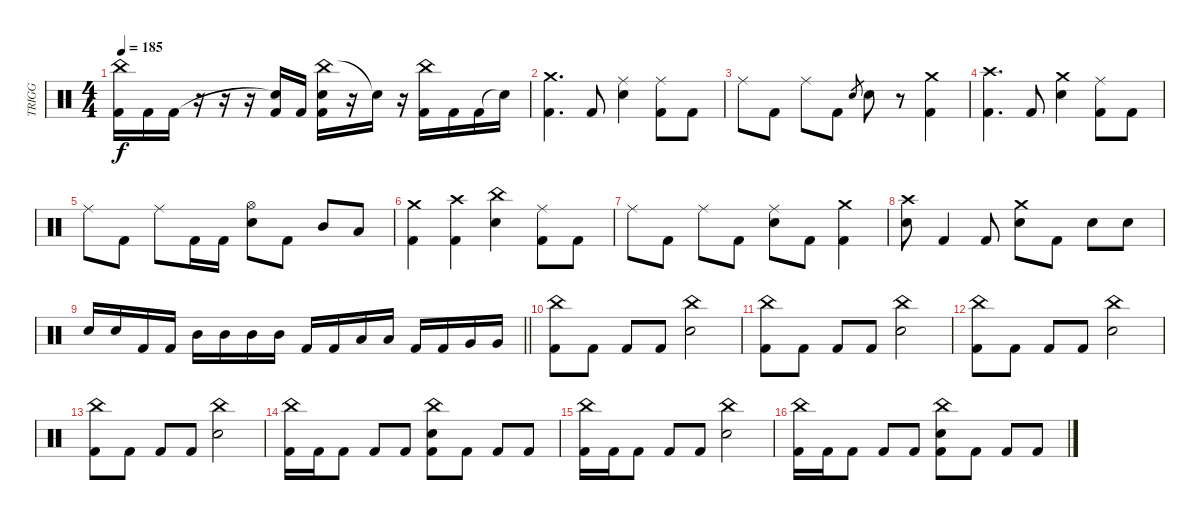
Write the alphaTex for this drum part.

\track ("TRIGG" "TRIGG") {instrument percussion}
\staff {score}
\articulation defaults
\ts (4 4)
\tempo 185
\clef neutral
\ks c
("China (hit)" "Kick (hit) 2").16{dy f} "Kick (hit) 2".16 "Kick (hit) 2".16 r.16 r.16 r.16 ("Snare (hit)"{t} "Kick (hit) 2").16 "Kick (hit) 2".16 ("China (hit)" "Electric Snare (hit)" "Kick (hit) 2").16 r.16 "Snare (hit)"{t}.16 r.16 ("China (hit)" "Kick (hit) 2").16 "Kick (hit) 2".16 "Kick (hit) 2".16 "Snare (hit)"{t}.16 |
("Crash medium (hit)" "Kick (hit) 2").4{d} "Kick (hit) 2".8 ("Ride (middle)" "Electric Snare (hit)").4 ("Ride (middle)" "Kick (hit) 2").8 "Kick (hit) 2".8 |
"Ride (middle)".8 "Kick (hit) 2".8 "Ride (middle)".8 "Kick (hit) 2".8 "Electric Snare (hit)".8{gr} "Electric Snare (hit)".8 r.8 ("Crash medium (hit)" "Kick (hit) 2").4 |
("Crash high (hit)" "Kick (hit) 2").4{d} "Kick (hit) 2".8 ("Crash medium (hit)" "Electric Snare (hit)").4 ("Ride (middle)" "Kick (hit) 2").8 "Kick (hit) 2".8 |
"Ride (middle)".8 "Kick (hit) 2".8 "Ride (middle)".8 "Kick (hit) 2".16 "Kick (hit) 2".16 ("Hi-Hat (open)" "Electric Snare (hit)").8 "Kick (hit) 2".8 "Mid Tom (hit)".8 "Low Tom (hit)".8 |
("Crash medium (hit)" "Kick (hit) 2").4 ("Crash high (hit)" "Kick (hit) 2").4 ("China (hit)" "Electric Snare (hit)").4 ("Ride (middle)" "Kick (hit) 2").8 "Kick (hit) 2".8 |
"Ride (middle)".8 "Kick (hit) 2".8 "Ride (middle)".8 "Kick (hit) 2".8 ("Ride (middle)" "Electric Snare (hit)").8 "Kick (hit) 2".8 ("Crash medium (hit)" "Kick (hit) 2").4 |
("Crash high (hit)" "Electric Snare (hit)").8 "Kick (hit) 2".4 "Kick (hit) 2".8 ("Crash medium (hit)" "Electric Snare (hit)").8 "Kick (hit) 2".8 "Electric Snare (hit)".8 "Electric Snare (hit)".8 |
\barLineRight lightlight "Electric Snare (hit)".16 "Electric Snare (hit)".16 "Kick (hit) 2".16 "Kick (hit) 2".16 "Mid Tom (hit)".16 "Mid Tom (hit)".16 "Mid Tom (hit)".16 "Mid Tom (hit)".16 "Kick (hit) 2".16 "Kick (hit) 2".16 "Low Tom (hit)".16 "Low Tom (hit)".16 "Kick (hit) 2".16 "Kick (hit) 2".16 "Very Low Tom (hit)".16 "Very Low Tom (hit)".16
|
("China (hit)" "Kick (hit) 2").8 "Kick (hit) 2".8 "Kick (hit) 2".8 "Kick (hit) 2".8 ("China (hit)" "Electric Snare (hit)").2 |
("China (hit)" "Kick (hit) 2").8 "Kick (hit) 2".8 "Kick (hit) 2".8 "Kick (hit) 2".8 ("China (hit)" "Electric Snare (hit)").2 |
("China (hit)" "Kick (hit) 2").8 "Kick (hit) 2".8 "Kick (hit) 2".8 "Kick (hit) 2".8 ("China (hit)" "Electric Snare (hit)").2 |
("China (hit)" "Kick (hit) 2").8 "Kick (hit) 2".8 "Kick (hit) 2".8 "Kick (hit) 2".8 ("China (hit)" "Electric Snare (hit)").2 |
("China (hit)" "Kick (hit) 2").16 "Kick (hit) 2".16 "Kick (hit) 2".8 "Kick (hit) 2".8 "Kick (hit) 2".8 ("China (hit)" "Electric Snare (hit)" "Kick (hit) 2").8 "Kick (hit) 2".8 "Kick (hit) 2".8 "Kick (hit) 2".8 |
("China (hit)" "Kick (hit) 2").16 "Kick (hit) 2".16 "Kick (hit) 2".8 "Kick (hit) 2".8 "Kick (hit) 2".8 ("China (hit)" "Electric Snare (hit)").2 |
("China (hit)" "Kick (hit) 2").16 "Kick (hit) 2".16 "Kick (hit) 2".8 "Kick (hit) 2".8 "Kick (hit) 2".8 ("China (hit)" "Electric Snare (hit)" "Kick (hit) 2").8 "Kick (hit) 2".8 "Kick (hit) 2".8 "Kick (hit) 2".8
